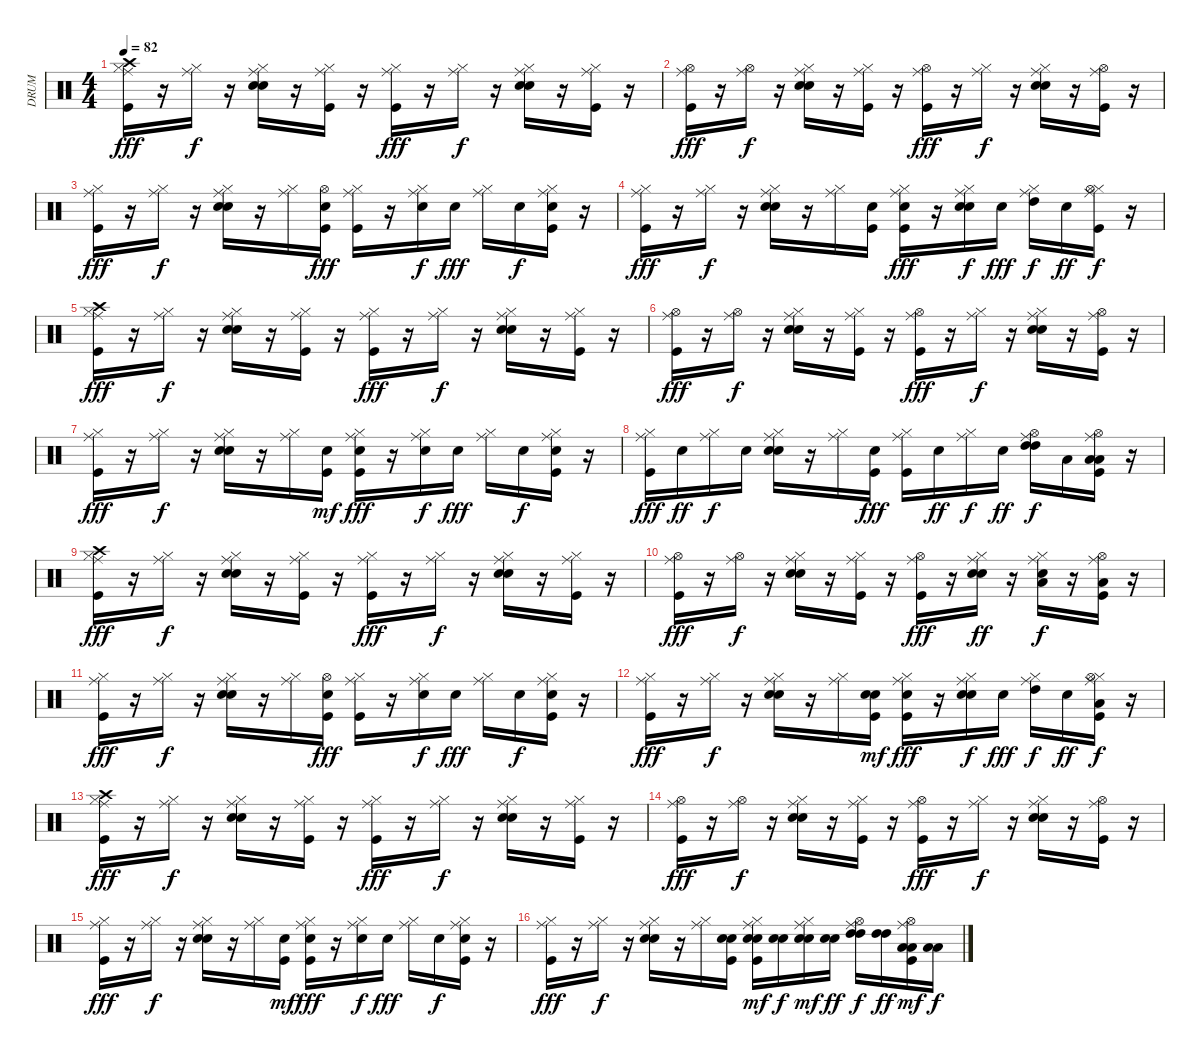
\track ("DRUM" "DRUM") {instrument percussion}
\staff {score}
\articulation defaults
\ts (4 4)
\tempo 82
\clef neutral
\ks c
("Kick (hit)" "Hi-Hat (closed)" "Ride (middle)" "Crash high (hit)").16{dy fff} r.16 ("Hi-Hat (closed)" "Ride (middle)").16{dy f} r.16 ("Snare (hit) 2" "Hi-Hat (closed)" "Ride (middle)" "Hand Clap (hit)").16 r.16 ("Kick (hit)" "Hi-Hat (closed)" "Ride (middle)").16 r.16 ("Kick (hit)" "Hi-Hat (closed)" "Ride (middle)").16{dy fff} r.16 ("Hi-Hat (closed)" "Ride (middle)").16{dy f} r.16 ("Snare (hit) 2" "Hi-Hat (closed)" "Ride (middle)" "Hand Clap (hit)").16 r.16 ("Kick (hit)" "Hi-Hat (closed)" "Ride (middle)").16 r.16 |
("Kick (hit)" "Hi-Hat (open)" "Ride (middle)").16{dy fff} r.16 ("Hi-Hat (open)" "Ride (middle)").16{dy f} r.16 ("Snare (hit) 2" "Hi-Hat (closed)" "Ride (middle)" "Hand Clap (hit)").16 r.16 ("Kick (hit)" "Hi-Hat (closed)" "Ride (middle)").16 r.16 ("Kick (hit)" "Hi-Hat (open)" "Ride (middle)").16{dy fff} r.16 ("Hi-Hat (closed)" "Ride (middle)").16{dy f} r.16 ("Snare (hit) 2" "Hi-Hat (closed)" "Ride (middle)" "Hand Clap (hit)").16 r.16 ("Kick (hit)" "Hi-Hat (open)" "Ride (middle)").16 r.16 |
("Kick (hit)" "Hi-Hat (closed)" "Ride (middle)").16{dy fff} r.16 ("Hi-Hat (closed)" "Ride (middle)").16{dy f} r.16 ("Snare (hit) 2" "Hi-Hat (closed)" "Ride (middle)" "Hand Clap (hit)").16 r.16 ("Hi-Hat (closed)" "Ride (middle)").16 ("Kick (hit)" "Snare (hit) 2" "Hi-Hat (open)").16{dy fff} ("Kick (hit)" "Hi-Hat (closed)" "Ride (middle)").16 r.16 ("Snare (hit) 2" "Hi-Hat (closed)" "Ride (middle)").16{dy f} "Snare (hit) 2".16{dy fff} ("Hi-Hat (closed)" "Ride (middle)").16 "Snare (hit) 2".16{dy f} ("Kick (hit)" "Snare (hit) 2" "Hi-Hat (closed)" "Ride (middle)").16 r.16 |
("Kick (hit)" "Hi-Hat (closed)" "Ride (middle)").16{dy fff} r.16 ("Hi-Hat (closed)" "Ride (middle)").16{dy f} r.16 ("Snare (hit) 2" "Hi-Hat (closed)" "Ride (middle)" "Hand Clap (hit)").16 r.16 ("Hi-Hat (closed)" "Ride (middle)").16 ("Kick (hit)" "Snare (hit) 2").16 ("Kick (hit)" "Snare (hit) 2" "Hi-Hat (closed)" "Ride (middle)").16{dy fff} r.16 ("Snare (hit) 2" "Hi-Hat (closed)" "Ride (middle)" "Snare (hit) 2").16{dy f} "Snare (hit) 2".16{dy fff} ("Hi-Hat (closed)" "Ride (middle)" "High Tom (hit)").16{dy f} "Snare (hit) 2".16{dy ff} ("Kick (hit)" "Hi-Hat (closed)" "Hi-Hat (open)" "Ride (middle)").16{dy f} r.16 |
("Kick (hit)" "Hi-Hat (closed)" "Ride (middle)" "Crash high (hit)").16{dy fff} r.16 ("Hi-Hat (closed)" "Ride (middle)").16{dy f} r.16 ("Snare (hit) 2" "Hi-Hat (closed)" "Ride (middle)" "Hand Clap (hit)").16 r.16 ("Kick (hit)" "Hi-Hat (closed)" "Ride (middle)").16 r.16 ("Kick (hit)" "Hi-Hat (closed)" "Ride (middle)").16{dy fff} r.16 ("Hi-Hat (closed)" "Ride (middle)").16{dy f} r.16 ("Snare (hit) 2" "Hi-Hat (closed)" "Ride (middle)" "Hand Clap (hit)").16 r.16 ("Kick (hit)" "Hi-Hat (closed)" "Ride (middle)").16 r.16 |
("Kick (hit)" "Hi-Hat (open)" "Ride (middle)").16{dy fff} r.16 ("Hi-Hat (open)" "Ride (middle)").16{dy f} r.16 ("Snare (hit) 2" "Hi-Hat (closed)" "Ride (middle)" "Hand Clap (hit)").16 r.16 ("Kick (hit)" "Hi-Hat (closed)" "Ride (middle)").16 r.16 ("Kick (hit)" "Hi-Hat (open)" "Ride (middle)").16{dy fff} r.16 ("Hi-Hat (closed)" "Ride (middle)").16{dy f} r.16 ("Snare (hit) 2" "Hi-Hat (closed)" "Ride (middle)" "Hand Clap (hit)").16 r.16 ("Kick (hit)" "Hi-Hat (open)" "Ride (middle)").16 r.16 |
("Kick (hit)" "Hi-Hat (closed)" "Ride (middle)").16{dy fff} r.16 ("Hi-Hat (closed)" "Ride (middle)").16{dy f} r.16 ("Snare (hit) 2" "Hi-Hat (closed)" "Ride (middle)" "Hand Clap (hit)").16 r.16 ("Hi-Hat (closed)" "Ride (middle)").16 ("Kick (hit)" "Snare (hit) 2").16{dy mf} ("Kick (hit)" "Snare (hit) 2" "Hi-Hat (closed)" "Ride (middle)").16{dy fff} r.16 ("Snare (hit) 2" "Hi-Hat (closed)" "Ride (middle)").16{dy f} "Snare (hit) 2".16{dy fff} ("Hi-Hat (closed)" "Ride (middle)").16 "Snare (hit) 2".16{dy f} ("Kick (hit)" "Snare (hit) 2" "Hi-Hat (closed)" "Ride (middle)").16 r.16 |
("Kick (hit)" "Hi-Hat (closed)" "Ride (middle)").16{dy fff} "Snare (hit) 2".16{dy ff} ("Hi-Hat (closed)" "Ride (middle)").16{dy f} "Snare (hit) 2".16 ("Snare (hit) 2" "Hi-Hat (closed)" "Ride (middle)" "Hand Clap (hit)").16 r.16 ("Hi-Hat (closed)" "Ride (middle)").16 ("Kick (hit)" "Snare (hit) 2").16{dy fff} ("Kick (hit)" "Hi-Hat (closed)" "Ride (middle)").16 "Snare (hit) 2".16{dy ff} ("Hi-Hat (closed)" "Ride (middle)").16{dy f} "Snare (hit) 2".16{dy ff} ("Hi-Hat (open)" "Ride (middle)" "High Tom (hit)" "High Tom (hit)").16{dy f} "Low Floor Tom (hit)".16 ("Kick (hit)" "Hi-Hat (open)" "Ride (middle)" "Low Tom (hit)" "Low Tom (hit)").16 r.16 |
("Kick (hit)" "Hi-Hat (closed)" "Ride (middle)" "Crash high (hit)").16{dy fff} r.16 ("Hi-Hat (closed)" "Ride (middle)").16{dy f} r.16 ("Snare (hit) 2" "Hi-Hat (closed)" "Ride (middle)" "Hand Clap (hit)").16 r.16 ("Kick (hit)" "Hi-Hat (closed)" "Ride (middle)").16 r.16 ("Kick (hit)" "Hi-Hat (closed)" "Ride (middle)").16{dy fff} r.16 ("Hi-Hat (closed)" "Ride (middle)").16{dy f} r.16 ("Snare (hit) 2" "Hi-Hat (closed)" "Ride (middle)" "Hand Clap (hit)").16 r.16 ("Kick (hit)" "Hi-Hat (closed)" "Ride (middle)").16 r.16 |
("Kick (hit)" "Hi-Hat (open)" "Ride (middle)").16{dy fff} r.16 ("Hi-Hat (open)" "Ride (middle)").16{dy f} r.16 ("Snare (hit) 2" "Hi-Hat (closed)" "Ride (middle)" "Hand Clap (hit)").16 r.16 ("Kick (hit)" "Hi-Hat (closed)" "Ride (middle)").16 r.16 ("Kick (hit)" "Hi-Hat (open)" "Ride (middle)").16{dy fff} r.16 ("Snare (hit) 2" "Hi-Hat (closed)" "Ride (middle)" "Snare (hit) 2").16{dy ff} r.16 ("Hi-Hat (closed)" "Ride (middle)" "Low Tom (hit)" "Hand Clap (hit)").16{dy f} r.16 ("Kick (hit)" "Hi-Hat (open)" "Ride (middle)" "Low Floor Tom (hit)").16 r.16 |
("Kick (hit)" "Hi-Hat (closed)" "Ride (middle)").16{dy fff} r.16 ("Hi-Hat (closed)" "Ride (middle)").16{dy f} r.16 ("Snare (hit) 2" "Hi-Hat (closed)" "Ride (middle)" "Hand Clap (hit)").16 r.16 ("Hi-Hat (closed)" "Ride (middle)").16 ("Kick (hit)" "Snare (hit) 2" "Hi-Hat (open)").16{dy fff} ("Kick (hit)" "Hi-Hat (closed)" "Ride (middle)").16 r.16 ("Snare (hit) 2" "Hi-Hat (closed)" "Ride (middle)").16{dy f} "Snare (hit) 2".16{dy fff} ("Hi-Hat (closed)" "Ride (middle)").16 "Snare (hit) 2".16{dy f} ("Kick (hit)" "Snare (hit) 2" "Hi-Hat (closed)" "Ride (middle)").16 r.16 |
("Kick (hit)" "Hi-Hat (closed)" "Ride (middle)").16{dy fff} r.16 ("Hi-Hat (closed)" "Ride (middle)").16{dy f} r.16 ("Snare (hit) 2" "Hi-Hat (closed)" "Ride (middle)" "Hand Clap (hit)").16 r.16 ("Hi-Hat (closed)" "Ride (middle)").16 ("Kick (hit)" "Snare (hit) 2" "Snare (hit) 2").16{dy mf} ("Kick (hit)" "Snare (hit) 2" "Hi-Hat (closed)" "Ride (middle)").16{dy fff} r.16 ("Snare (hit) 2" "Hi-Hat (closed)" "Ride (middle)" "Snare (hit) 2").16{dy f} "Snare (hit) 2".16{dy fff} ("Hi-Hat (closed)" "Ride (middle)" "High Tom (hit)").16{dy f} "Snare (hit) 2".16{dy ff} ("Kick (hit)" "Hi-Hat (closed)" "Hi-Hat (open)" "Ride (middle)" "Low Floor Tom (hit)").16{dy f} r.16 |
("Kick (hit)" "Hi-Hat (closed)" "Ride (middle)" "Crash high (hit)").16{dy fff} r.16 ("Hi-Hat (closed)" "Ride (middle)").16{dy f} r.16 ("Snare (hit) 2" "Hi-Hat (closed)" "Ride (middle)" "Hand Clap (hit)").16 r.16 ("Kick (hit)" "Hi-Hat (closed)" "Ride (middle)").16 r.16 ("Kick (hit)" "Hi-Hat (closed)" "Ride (middle)").16{dy fff} r.16 ("Hi-Hat (closed)" "Ride (middle)").16{dy f} r.16 ("Snare (hit) 2" "Hi-Hat (closed)" "Ride (middle)" "Hand Clap (hit)").16 r.16 ("Kick (hit)" "Hi-Hat (closed)" "Ride (middle)").16 r.16 |
("Kick (hit)" "Hi-Hat (open)" "Ride (middle)").16{dy fff} r.16 ("Hi-Hat (open)" "Ride (middle)").16{dy f} r.16 ("Snare (hit) 2" "Hi-Hat (closed)" "Ride (middle)" "Hand Clap (hit)").16 r.16 ("Kick (hit)" "Hi-Hat (closed)" "Ride (middle)").16 r.16 ("Kick (hit)" "Hi-Hat (open)" "Ride (middle)").16{dy fff} r.16 ("Hi-Hat (closed)" "Ride (middle)").16{dy f} r.16 ("Snare (hit) 2" "Hi-Hat (closed)" "Ride (middle)" "Hand Clap (hit)").16 r.16 ("Kick (hit)" "Hi-Hat (open)" "Ride (middle)").16 r.16 |
("Kick (hit)" "Hi-Hat (closed)" "Ride (middle)").16{dy fff} r.16 ("Hi-Hat (closed)" "Ride (middle)").16{dy f} r.16 ("Snare (hit) 2" "Hi-Hat (closed)" "Ride (middle)" "Hand Clap (hit)").16 r.16 ("Hi-Hat (closed)" "Ride (middle)").16 ("Kick (hit)" "Snare (hit) 2").16{dy mf} ("Kick (hit)" "Snare (hit) 2" "Hi-Hat (closed)" "Ride (middle)").16{dy fff} r.16 ("Snare (hit) 2" "Hi-Hat (closed)" "Ride (middle)").16{dy f} "Snare (hit) 2".16{dy fff} ("Hi-Hat (closed)" "Ride (middle)").16 "Snare (hit) 2".16{dy f} ("Kick (hit)" "Snare (hit) 2" "Hi-Hat (closed)" "Ride (middle)").16 r.16 |
("Kick (hit)" "Hi-Hat (closed)" "Ride (middle)").16{dy fff} r.16 ("Hi-Hat (closed)" "Ride (middle)").16{dy f} r.16 ("Snare (hit) 2" "Hi-Hat (closed)" "Ride (middle)" "Hand Clap (hit)").16 r.16 ("Hi-Hat (closed)" "Ride (middle)").16 ("Kick (hit)" "Snare (hit) 2" "Snare (hit) 2").16 ("Kick (hit)" "Snare (hit) 2" "Hi-Hat (closed)" "Ride (middle)" "Snare (hit) 2").16{dy mf} ("Snare (hit) 2" "Snare (hit) 2").16{dy f} ("Snare (hit) 2" "Hi-Hat (closed)" "Ride (middle)" "Snare (hit) 2").16{dy mf} ("Snare (hit) 2" "Snare (hit) 2").16{dy ff} ("Hi-Hat (open)" "Ride (middle)" "High Tom (hit)" "High Tom (hit)").16{dy f} ("High Tom (hit)" "High Tom (hit)").16{dy ff} ("Kick (hit)" "Hi-Hat (open)" "Ride (middle)" "Low Tom (hit)" "Low Tom (hit)").16{dy mf} ("Low Tom (hit)" "Low Floor Tom (hit)").16{dy f}
